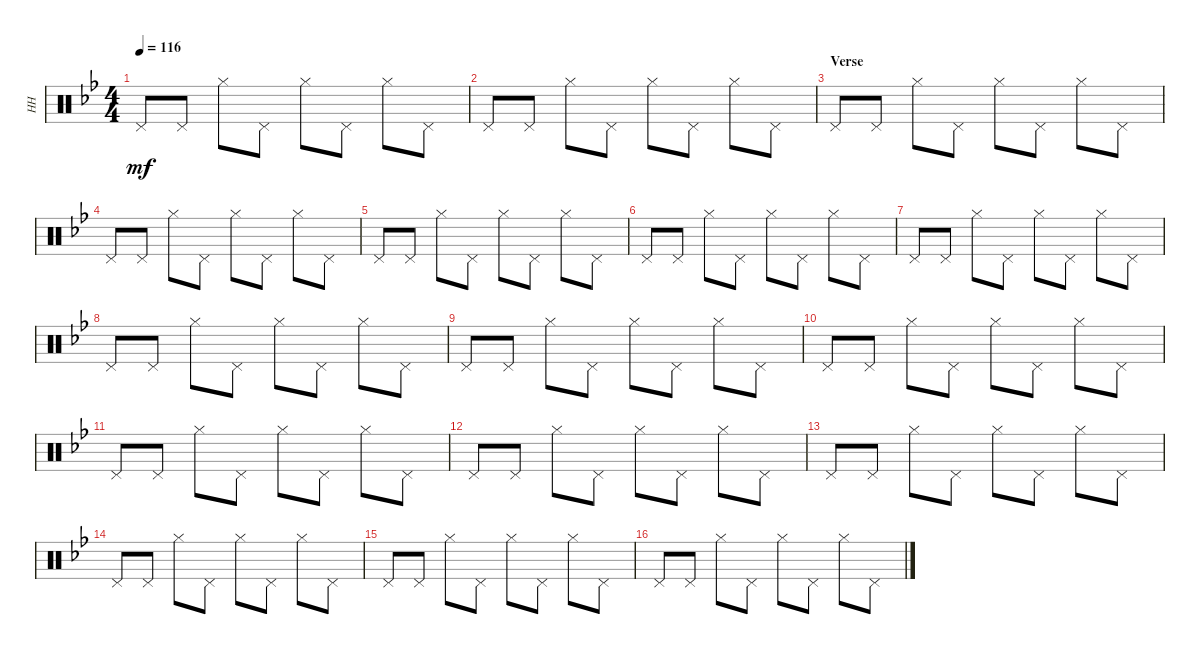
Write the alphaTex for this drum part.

\track ("HH" "HH") {instrument percussion}
\staff {score}
\articulation defaults
\ts (4 4)
\tempo 116
\clef neutral
\ks bb "Pedal Hi-Hat (hit)".8{dy mf} "Pedal Hi-Hat (hit)".8 "Hi-Hat (closed)".8 "Pedal Hi-Hat (hit)".8 "Hi-Hat (closed)".8 "Pedal Hi-Hat (hit)".8 "Hi-Hat (closed)".8 "Pedal Hi-Hat (hit)".8
|
"Pedal Hi-Hat (hit)".8 "Pedal Hi-Hat (hit)".8 "Hi-Hat (closed)".8 "Pedal Hi-Hat (hit)".8 "Hi-Hat (closed)".8 "Pedal Hi-Hat (hit)".8 "Hi-Hat (closed)".8 "Pedal Hi-Hat (hit)".8 |
\section ("" "Verse")
"Pedal Hi-Hat (hit)".8 "Pedal Hi-Hat (hit)".8 "Hi-Hat (closed)".8 "Pedal Hi-Hat (hit)".8 "Hi-Hat (closed)".8 "Pedal Hi-Hat (hit)".8 "Hi-Hat (closed)".8 "Pedal Hi-Hat (hit)".8 |
"Pedal Hi-Hat (hit)".8 "Pedal Hi-Hat (hit)".8 "Hi-Hat (closed)".8 "Pedal Hi-Hat (hit)".8 "Hi-Hat (closed)".8 "Pedal Hi-Hat (hit)".8 "Hi-Hat (closed)".8 "Pedal Hi-Hat (hit)".8 |
"Pedal Hi-Hat (hit)".8 "Pedal Hi-Hat (hit)".8 "Hi-Hat (closed)".8 "Pedal Hi-Hat (hit)".8 "Hi-Hat (closed)".8 "Pedal Hi-Hat (hit)".8 "Hi-Hat (closed)".8 "Pedal Hi-Hat (hit)".8 |
"Pedal Hi-Hat (hit)".8 "Pedal Hi-Hat (hit)".8 "Hi-Hat (closed)".8 "Pedal Hi-Hat (hit)".8 "Hi-Hat (closed)".8 "Pedal Hi-Hat (hit)".8 "Hi-Hat (closed)".8 "Pedal Hi-Hat (hit)".8 |
"Pedal Hi-Hat (hit)".8 "Pedal Hi-Hat (hit)".8 "Hi-Hat (closed)".8 "Pedal Hi-Hat (hit)".8 "Hi-Hat (closed)".8 "Pedal Hi-Hat (hit)".8 "Hi-Hat (closed)".8 "Pedal Hi-Hat (hit)".8 |
"Pedal Hi-Hat (hit)".8 "Pedal Hi-Hat (hit)".8 "Hi-Hat (closed)".8 "Pedal Hi-Hat (hit)".8 "Hi-Hat (closed)".8 "Pedal Hi-Hat (hit)".8 "Hi-Hat (closed)".8 "Pedal Hi-Hat (hit)".8 |
"Pedal Hi-Hat (hit)".8 "Pedal Hi-Hat (hit)".8 "Hi-Hat (closed)".8 "Pedal Hi-Hat (hit)".8 "Hi-Hat (closed)".8 "Pedal Hi-Hat (hit)".8 "Hi-Hat (closed)".8 "Pedal Hi-Hat (hit)".8 |
"Pedal Hi-Hat (hit)".8 "Pedal Hi-Hat (hit)".8 "Hi-Hat (closed)".8 "Pedal Hi-Hat (hit)".8 "Hi-Hat (closed)".8 "Pedal Hi-Hat (hit)".8 "Hi-Hat (closed)".8 "Pedal Hi-Hat (hit)".8 |
"Pedal Hi-Hat (hit)".8 "Pedal Hi-Hat (hit)".8 "Hi-Hat (closed)".8 "Pedal Hi-Hat (hit)".8 "Hi-Hat (closed)".8 "Pedal Hi-Hat (hit)".8 "Hi-Hat (closed)".8 "Pedal Hi-Hat (hit)".8 |
"Pedal Hi-Hat (hit)".8 "Pedal Hi-Hat (hit)".8 "Hi-Hat (closed)".8 "Pedal Hi-Hat (hit)".8 "Hi-Hat (closed)".8 "Pedal Hi-Hat (hit)".8 "Hi-Hat (closed)".8 "Pedal Hi-Hat (hit)".8 |
"Pedal Hi-Hat (hit)".8 "Pedal Hi-Hat (hit)".8 "Hi-Hat (closed)".8 "Pedal Hi-Hat (hit)".8 "Hi-Hat (closed)".8 "Pedal Hi-Hat (hit)".8 "Hi-Hat (closed)".8 "Pedal Hi-Hat (hit)".8 |
"Pedal Hi-Hat (hit)".8 "Pedal Hi-Hat (hit)".8 "Hi-Hat (closed)".8 "Pedal Hi-Hat (hit)".8 "Hi-Hat (closed)".8 "Pedal Hi-Hat (hit)".8 "Hi-Hat (closed)".8 "Pedal Hi-Hat (hit)".8 |
"Pedal Hi-Hat (hit)".8 "Pedal Hi-Hat (hit)".8 "Hi-Hat (closed)".8 "Pedal Hi-Hat (hit)".8 "Hi-Hat (closed)".8 "Pedal Hi-Hat (hit)".8 "Hi-Hat (closed)".8 "Pedal Hi-Hat (hit)".8 |
"Pedal Hi-Hat (hit)".8 "Pedal Hi-Hat (hit)".8 "Hi-Hat (closed)".8 "Pedal Hi-Hat (hit)".8 "Hi-Hat (closed)".8 "Pedal Hi-Hat (hit)".8 "Hi-Hat (closed)".8 "Pedal Hi-Hat (hit)".8
